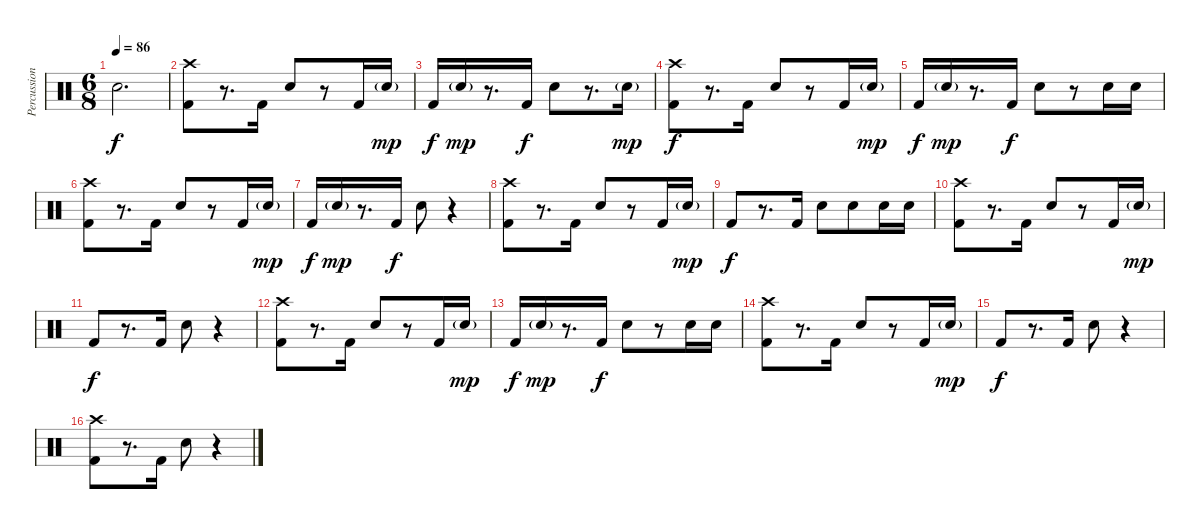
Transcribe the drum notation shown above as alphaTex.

\track ("Percussion" "Percussion") {instrument percussion}
\staff {score}
\articulation defaults
\ts (6 8)
\tempo 86
\clef neutral
\ks c "Snare (hit) 2".2{d dy f volume 13}
|
("Crash high (hit)" "Kick (hit) 2").8 r.8{d} "Kick (hit) 2".16 "Snare (hit) 2".8 r.8 "Kick (hit) 2".16 "Snare (hit) 2"{g}.16{dy mp} |
"Kick (hit) 2".16{dy f} "Snare (hit) 2"{g}.16{dy mp} r.8{d} "Kick (hit) 2".16{dy f} "Snare (hit) 2".8 r.8{d} "Snare (hit) 2"{g}.16{dy mp} |
("Crash high (hit)" "Kick (hit) 2").8{dy f} r.8{d} "Kick (hit) 2".16 "Snare (hit) 2".8 r.8 "Kick (hit) 2".16 "Snare (hit) 2"{g}.16{dy mp} |
"Kick (hit) 2".16{dy f} "Snare (hit) 2"{g}.16{dy mp} r.8{d} "Kick (hit) 2".16{dy f} "Snare (hit) 2".8 r.8 "Snare (hit) 2".16 "Snare (hit) 2".16 |
("Crash high (hit)" "Kick (hit) 2").8 r.8{d} "Kick (hit) 2".16 "Snare (hit) 2".8 r.8 "Kick (hit) 2".16 "Snare (hit) 2"{g}.16{dy mp} |
"Kick (hit) 2".16{dy f} "Snare (hit) 2"{g}.16{dy mp} r.8{d} "Kick (hit) 2".16{dy f} "Snare (hit) 2".8 r.4 |
("Crash high (hit)" "Kick (hit) 2").8 r.8{d} "Kick (hit) 2".16 "Snare (hit) 2".8 r.8 "Kick (hit) 2".16 "Snare (hit) 2"{g}.16{dy mp} |
"Kick (hit) 2".8{dy f} r.8{d} "Kick (hit) 2".16 "Snare (hit) 2".8 "Snare (hit) 2".8 "Snare (hit) 2".16 "Snare (hit) 2".16 |
("Crash high (hit)" "Kick (hit) 2").8 r.8{d} "Kick (hit) 2".16 "Snare (hit) 2".8 r.8 "Kick (hit) 2".16 "Snare (hit) 2"{g}.16{dy mp} |
"Kick (hit) 2".8{dy f} r.8{d} "Kick (hit) 2".16 "Snare (hit) 2".8 r.4 |
("Crash high (hit)" "Kick (hit) 2").8 r.8{d} "Kick (hit) 2".16 "Snare (hit) 2".8 r.8 "Kick (hit) 2".16 "Snare (hit) 2"{g}.16{dy mp} |
"Kick (hit) 2".16{dy f} "Snare (hit) 2"{g}.16{dy mp} r.8{d} "Kick (hit) 2".16{dy f} "Snare (hit) 2".8 r.8 "Snare (hit) 2".16 "Snare (hit) 2".16 |
("Crash high (hit)" "Kick (hit) 2").8 r.8{d} "Kick (hit) 2".16 "Snare (hit) 2".8 r.8 "Kick (hit) 2".16 "Snare (hit) 2"{g}.16{dy mp} |
"Kick (hit) 2".8{dy f} r.8{d} "Kick (hit) 2".16 "Snare (hit) 2".8 r.4 |
("Crash high (hit)" "Kick (hit) 2").8 r.8{d} "Kick (hit) 2".16 "Snare (hit) 2".8 r.4
